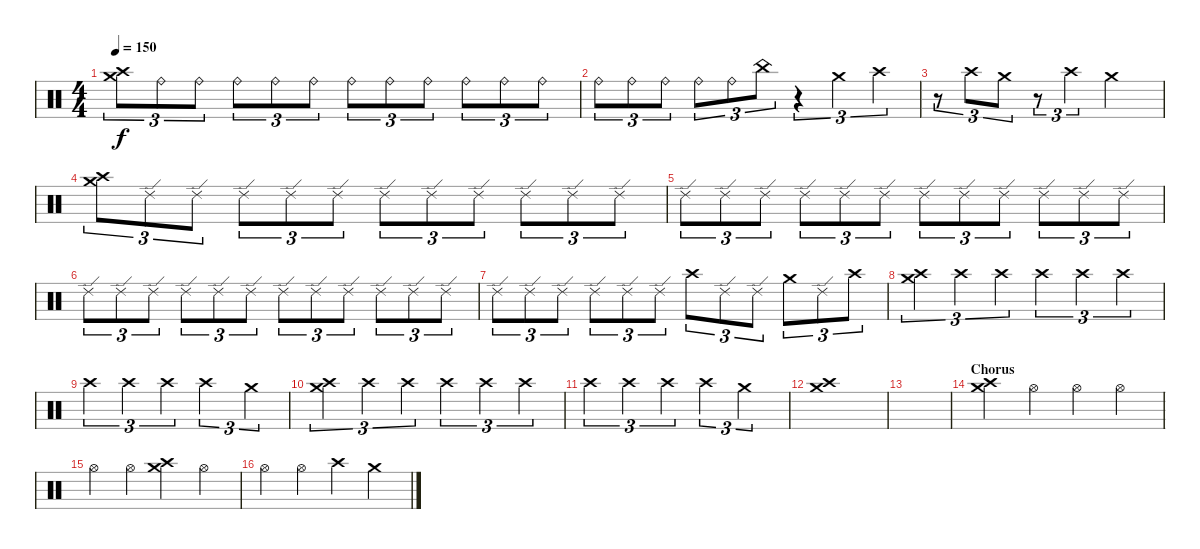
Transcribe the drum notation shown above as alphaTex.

\track "" {instrument percussion}
\staff {score}
\articulation defaults
\ts (4 4)
\tempo 150
\clef neutral
\ks c
("Crash medium (hit)" "Crash high (hit)").8{tu (3 2) dy f} "Ride (bell)".8{tu (3 2)} "Ride (bell)".8{tu (3 2)} "Ride (bell)".8{tu (3 2)} "Ride (bell)".8{tu (3 2)} "Ride (bell)".8{tu (3 2)} "Ride (bell)".8{tu (3 2)} "Ride (bell)".8{tu (3 2)} "Ride (bell)".8{tu (3 2)} "Ride (bell)".8{tu (3 2)} "Ride (bell)".8{tu (3 2)} "Ride (bell)".8{tu (3 2)} |
"Ride (bell)".8{tu (3 2)} "Ride (bell)".8{tu (3 2)} "Ride (bell)".8{tu (3 2)} "Ride (bell)".8{tu (3 2)} "Ride (bell)".8{tu (3 2)} "China (hit)".8{tu (3 2)} r.4{tu (3 2)} "Crash medium (hit)".4{tu (3 2)} "Crash high (hit)".4{tu (3 2)} |
r.8{tu (3 2)} "Crash high (hit)".8{tu (3 2)} "Crash medium (hit)".8{tu (3 2)} r.8{tu (3 2)} "Crash high (hit)".4{tu (3 2)} "Crash medium (hit)".2 |
("Crash medium (hit)" "Crash high (hit)").8{tu (3 2)} "Ride (edge) 2".8{tu (3 2)} "Ride (edge) 2".8{tu (3 2)} "Ride (edge) 2".8{tu (3 2)} "Ride (edge) 2".8{tu (3 2)} "Ride (edge) 2".8{tu (3 2)} "Ride (edge) 2".8{tu (3 2)} "Ride (edge) 2".8{tu (3 2)} "Ride (edge) 2".8{tu (3 2)} "Ride (edge) 2".8{tu (3 2)} "Ride (edge) 2".8{tu (3 2)} "Ride (edge) 2".8{tu (3 2)} |
"Ride (edge) 2".8{tu (3 2)} "Ride (edge) 2".8{tu (3 2)} "Ride (edge) 2".8{tu (3 2)} "Ride (edge) 2".8{tu (3 2)} "Ride (edge) 2".8{tu (3 2)} "Ride (edge) 2".8{tu (3 2)} "Ride (edge) 2".8{tu (3 2)} "Ride (edge) 2".8{tu (3 2)} "Ride (edge) 2".8{tu (3 2)} "Ride (edge) 2".8{tu (3 2)} "Ride (edge) 2".8{tu (3 2)} "Ride (edge) 2".8{tu (3 2)} |
"Ride (edge) 2".8{tu (3 2)} "Ride (edge) 2".8{tu (3 2)} "Ride (edge) 2".8{tu (3 2)} "Ride (edge) 2".8{tu (3 2)} "Ride (edge) 2".8{tu (3 2)} "Ride (edge) 2".8{tu (3 2)} "Ride (edge) 2".8{tu (3 2)} "Ride (edge) 2".8{tu (3 2)} "Ride (edge) 2".8{tu (3 2)} "Ride (edge) 2".8{tu (3 2)} "Ride (edge) 2".8{tu (3 2)} "Ride (edge) 2".8{tu (3 2)} |
"Ride (edge) 2".8{tu (3 2)} "Ride (edge) 2".8{tu (3 2)} "Ride (edge) 2".8{tu (3 2)} "Ride (edge) 2".8{tu (3 2)} "Ride (edge) 2".8{tu (3 2)} "Ride (edge) 2".8{tu (3 2)} "Crash high (hit)".8{tu (3 2)} "Ride (edge) 2".8{tu (3 2)} "Ride (edge) 2".8{tu (3 2)} "Crash medium (hit)".8{tu (3 2)} "Ride (edge) 2".8{tu (3 2)} "Crash high (hit)".8{tu (3 2)} |
("Crash medium (hit)" "Crash high (hit)").4{tu (3 2)} "Crash high (hit)".4{tu (3 2)} "Crash high (hit)".4{tu (3 2)} "Crash high (hit)".4{tu (3 2)} "Crash high (hit)".4{tu (3 2)} "Crash high (hit)".4{tu (3 2)} |
"Crash high (hit)".4{tu (3 2)} "Crash high (hit)".4{tu (3 2)} "Crash high (hit)".4{tu (3 2)} "Crash high (hit)".2{tu (3 2)} "Crash medium (hit)".4{tu (3 2)} |
("Crash medium (hit)" "Crash high (hit)").4{tu (3 2)} "Crash high (hit)".4{tu (3 2)} "Crash high (hit)".4{tu (3 2)} "Crash high (hit)".4{tu (3 2)} "Crash high (hit)".4{tu (3 2)} "Crash high (hit)".4{tu (3 2)} |
"Crash high (hit)".4{tu (3 2)} "Crash high (hit)".4{tu (3 2)} "Crash high (hit)".4{tu (3 2)} "Crash high (hit)".4{tu (3 2)} "Crash medium (hit)".2{tu (3 2)} |
("Crash medium (hit)" "Crash high (hit)").1 |
|
\section ("" "Chorus")
("Crash medium (hit)" "Crash high (hit)").4 "Hi-Hat (open)".4 "Hi-Hat (open)".4 "Hi-Hat (open)".4 |
"Hi-Hat (open)".4 "Hi-Hat (open)".4 ("Crash medium (hit)" "Crash high (hit)").4 "Hi-Hat (open)".4 |
"Hi-Hat (open)".4 "Hi-Hat (open)".4 "Crash high (hit)".4 "Crash medium (hit)".4
